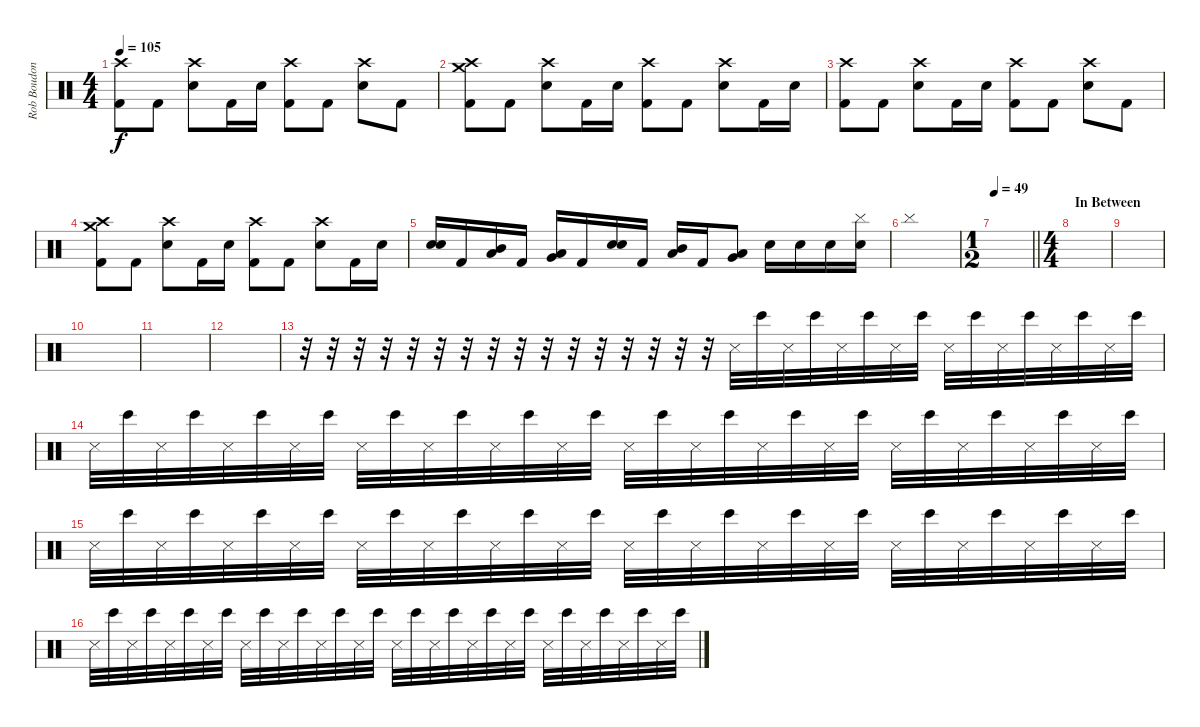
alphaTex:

\track ("Rob Boudon [Drums]" "Rob Boudon") {instrument percussion}
\staff {score}
\articulation defaults
\ts (4 4)
\tempo 105
\clef neutral
\ks c
("Crash high (hit)" "Kick (hit) 2").8{dy f} "Kick (hit) 2".8 ("Crash high (hit)" "Electric Snare (hit)").8 "Kick (hit) 2".16 "Electric Snare (hit)".16 ("Crash high (hit)" "Kick (hit) 2").8 "Kick (hit) 2".8 ("Crash high (hit)" "Electric Snare (hit)").8 "Kick (hit) 2".8 |
("Crash medium (hit)" "Crash high (hit)" "Kick (hit) 2").8 "Kick (hit) 2".8 ("Crash high (hit)" "Electric Snare (hit)").8 "Kick (hit) 2".16 "Electric Snare (hit)".16 ("Crash high (hit)" "Kick (hit) 2").8 "Kick (hit) 2".8 ("Crash high (hit)" "Electric Snare (hit)").8 "Kick (hit) 2".16 "Electric Snare (hit)".16 |
("Crash high (hit)" "Kick (hit) 2").8 "Kick (hit) 2".8 ("Crash high (hit)" "Electric Snare (hit)").8 "Kick (hit) 2".16 "Electric Snare (hit)".16 ("Crash high (hit)" "Kick (hit) 2").8 "Kick (hit) 2".8 ("Crash high (hit)" "Electric Snare (hit)").8 "Kick (hit) 2".8 |
("Crash medium (hit)" "Crash high (hit)" "Kick (hit) 2").8 "Kick (hit) 2".8 ("Crash high (hit)" "Electric Snare (hit)").8 "Kick (hit) 2".16 "Electric Snare (hit)".16 ("Crash high (hit)" "Kick (hit) 2").8 "Kick (hit) 2".8 ("Crash high (hit)" "Electric Snare (hit)").8 "Kick (hit) 2".16 "Electric Snare (hit)".16 |
("Electric Snare (hit)" "Electric Snare (hit)").16{bd 240} "Kick (hit) 2".16 ("Low Tom (hit)" "Mid Tom (hit)").16{bd 240} "Kick (hit) 2".16 ("Very Low Tom (hit)" "Low Tom (hit)").16{bd 240} "Kick (hit) 2".16 ("Electric Snare (hit)" "Electric Snare (hit)").16{bd 240} "Kick (hit) 2".16 ("Mid Tom (hit)" "Low Tom (hit)").16{bd 240} "Kick (hit) 2".16 ("Very Low Tom (hit)" "Low Tom (hit)").8{bd 240} "Electric Snare (hit)".16 "Electric Snare (hit)".16 "Electric Snare (hit)".16 ("Electric Snare (hit)" "Cymbal (hit)").16 |
"Cymbal (hit)".1 |
\ts (1 2)
\tempo 49
\barLineRight lightlight
|
\ts (4 4)
\section ("" "In Between")
|
|
|
|
|
r.32 r.32 r.32 r.32 r.32 r.32 r.32 r.32 r.32 r.32 r.32 r.32 r.32 r.32 r.32 r.32 "Snare (side stick) 3".32 "Bongo High (hit)".32 "Snare (side stick) 3".32 "Bongo High (hit)".32 "Snare (side stick) 3".32 "Bongo High (hit)".32 "Snare (side stick) 3".32 "Bongo High (hit)".32 "Snare (side stick) 3".32 "Bongo High (hit)".32 "Snare (side stick) 3".32 "Bongo High (hit)".32 "Snare (side stick) 3".32 "Bongo High (hit)".32 "Snare (side stick) 3".32 "Bongo High (hit)".32 |
"Snare (side stick) 3".32 "Bongo High (hit)".32 "Snare (side stick) 3".32 "Bongo High (hit)".32 "Snare (side stick) 3".32 "Bongo High (hit)".32 "Snare (side stick) 3".32 "Bongo High (hit)".32 "Snare (side stick) 3".32 "Bongo High (hit)".32 "Snare (side stick) 3".32 "Bongo High (hit)".32 "Snare (side stick) 3".32 "Bongo High (hit)".32 "Snare (side stick) 3".32 "Bongo High (hit)".32 "Snare (side stick) 3".32 "Bongo High (hit)".32 "Snare (side stick) 3".32 "Bongo High (hit)".32 "Snare (side stick) 3".32 "Bongo High (hit)".32 "Snare (side stick) 3".32 "Bongo High (hit)".32 "Snare (side stick) 3".32 "Bongo High (hit)".32 "Snare (side stick) 3".32 "Bongo High (hit)".32 "Snare (side stick) 3".32 "Bongo High (hit)".32 "Snare (side stick) 3".32 "Bongo High (hit)".32 |
"Snare (side stick) 3".32 "Bongo High (hit)".32 "Snare (side stick) 3".32 "Bongo High (hit)".32 "Snare (side stick) 3".32 "Bongo High (hit)".32 "Snare (side stick) 3".32 "Bongo High (hit)".32 "Snare (side stick) 3".32 "Bongo High (hit)".32 "Snare (side stick) 3".32 "Bongo High (hit)".32 "Snare (side stick) 3".32 "Bongo High (hit)".32 "Snare (side stick) 3".32 "Bongo High (hit)".32 "Snare (side stick) 3".32 "Bongo High (hit)".32 "Snare (side stick) 3".32 "Bongo High (hit)".32 "Snare (side stick) 3".32 "Bongo High (hit)".32 "Snare (side stick) 3".32 "Bongo High (hit)".32 "Snare (side stick) 3".32 "Bongo High (hit)".32 "Snare (side stick) 3".32 "Bongo High (hit)".32 "Snare (side stick) 3".32 "Bongo High (hit)".32 "Snare (side stick) 3".32 "Bongo High (hit)".32 |
"Snare (side stick) 3".32 "Bongo High (hit)".32 "Snare (side stick) 3".32 "Bongo High (hit)".32 "Snare (side stick) 3".32 "Bongo High (hit)".32 "Snare (side stick) 3".32 "Bongo High (hit)".32 "Snare (side stick) 3".32 "Bongo High (hit)".32 "Snare (side stick) 3".32 "Bongo High (hit)".32 "Snare (side stick) 3".32 "Bongo High (hit)".32 "Snare (side stick) 3".32 "Bongo High (hit)".32 "Snare (side stick) 3".32 "Bongo High (hit)".32 "Snare (side stick) 3".32 "Bongo High (hit)".32 "Snare (side stick) 3".32 "Bongo High (hit)".32 "Snare (side stick) 3".32 "Bongo High (hit)".32 "Snare (side stick) 3".32 "Bongo High (hit)".32 "Snare (side stick) 3".32 "Bongo High (hit)".32 "Snare (side stick) 3".32 "Bongo High (hit)".32 "Snare (side stick) 3".32 "Bongo High (hit)".32
